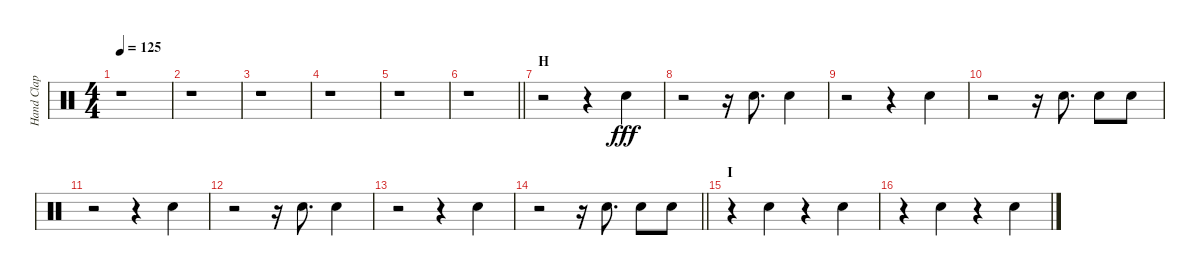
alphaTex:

\track ("Hand Clap" "Hand Clap") {instrument percussion}
\staff {score}
\articulation defaults
\ts (4 4)
\tempo 125
\clef neutral
\ks c
r.1{dy fff} |
r.1 |
r.1 |
r.1 |
r.1 |
\barLineRight lightlight
r.1 |
\section ("" "H")
r.2 r.4 "Hand Clap (hit)".4 |
r.2 r.16 "Hand Clap (hit)".8{d} "Hand Clap (hit)".4 |
r.2 r.4 "Hand Clap (hit)".4 |
r.2 r.16 "Hand Clap (hit)".8{d} "Hand Clap (hit)".8 "Hand Clap (hit)".8 |
r.2 r.4 "Hand Clap (hit)".4 |
r.2 r.16 "Hand Clap (hit)".8{d} "Hand Clap (hit)".4 |
r.2 r.4 "Hand Clap (hit)".4 |
\barLineRight lightlight
r.2 r.16 "Hand Clap (hit)".8{d} "Hand Clap (hit)".8 "Hand Clap (hit)".8 |
\section ("" "I")
r.4 "Hand Clap (hit)".4 r.4 "Hand Clap (hit)".4 |
r.4 "Hand Clap (hit)".4 r.4 "Hand Clap (hit)".4
